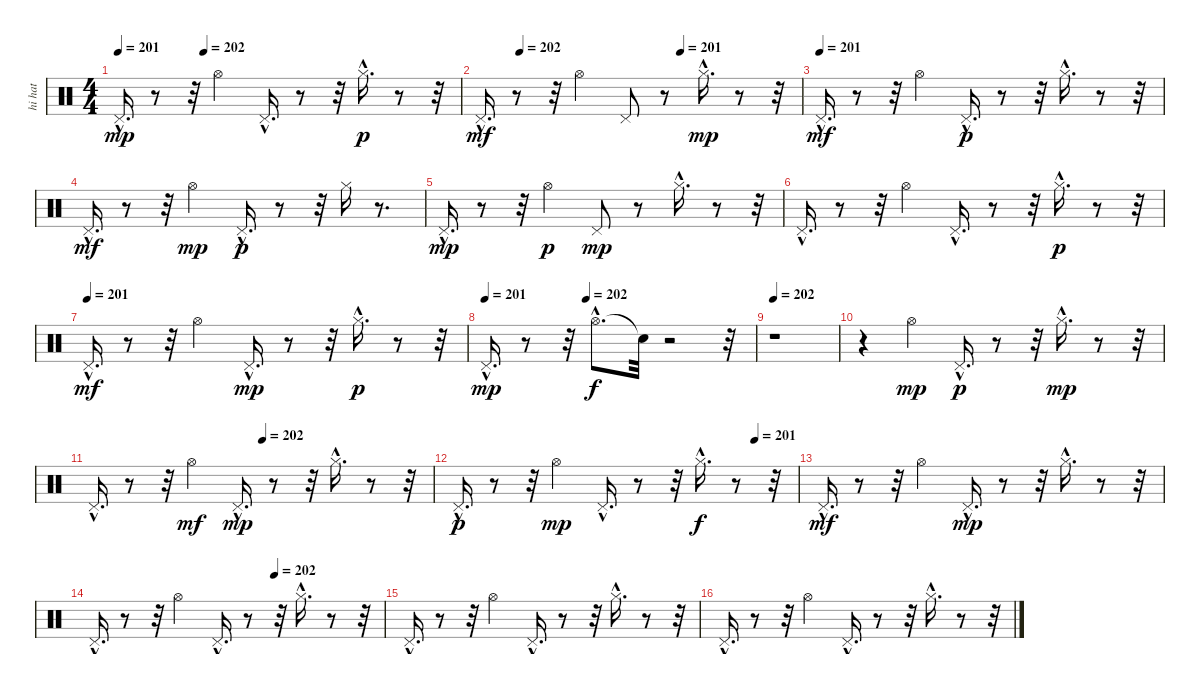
\track ("hi hat" "hi hat") {instrument percussion}
\staff {score}
\articulation defaults
\ts (4 4)
\tempo 201
\tempo (202 0.25)
\clef neutral
\ks c "Pedal Hi-Hat (hit)"{hac}.16{d dy mp}
r.8 r.32 "Hi-Hat (open)".4 "Pedal Hi-Hat (hit)"{hac}.16{d} r.8 r.32 "Hi-Hat (closed)"{hac}.16{d dy p} r.8 r.32 |
\tempo (202 0.125)
\tempo (201 0.625)
"Pedal Hi-Hat (hit)"{hac}.16{d dy mf} r.8 r.32 "Hi-Hat (open)".4 "Pedal Hi-Hat (hit)".8 r.8 "Hi-Hat (closed)"{hac}.16{d dy mp} r.8 r.32 |
\tempo (201)
"Pedal Hi-Hat (hit)"{hac}.16{d dy mf} r.8 r.32 "Hi-Hat (open)".4 "Pedal Hi-Hat (hit)"{hac}.16{d dy p} r.8 r.32 "Hi-Hat (closed)"{hac}.16{d} r.8 r.32 |
"Pedal Hi-Hat (hit)"{hac}.16{d dy mf} r.8 r.32 "Hi-Hat (open)".4{dy mp} "Pedal Hi-Hat (hit)"{hac}.16{d dy p} r.8 r.32 "Hi-Hat (closed)".16 r.8{d} |
"Pedal Hi-Hat (hit)"{hac}.16{d dy mp} r.8 r.32 "Hi-Hat (open)".4{dy p} "Pedal Hi-Hat (hit)".8{dy mp} r.8 "Hi-Hat (closed)"{hac}.16{d} r.8 r.32 |
"Pedal Hi-Hat (hit)"{hac}.16{d} r.8 r.32 "Hi-Hat (open)".4 "Pedal Hi-Hat (hit)"{hac}.16{d} r.8 r.32 "Hi-Hat (closed)"{hac}.16{d dy p} r.8 r.32 |
\tempo (201)
"Pedal Hi-Hat (hit)"{hac}.16{d dy mf} r.8 r.32 "Hi-Hat (open)".4 "Pedal Hi-Hat (hit)"{hac}.16{d dy mp} r.8 r.32 "Hi-Hat (closed)"{hac}.16{d dy p} r.8 r.32 |
\tempo 201
\tempo (202 0.375)
"Pedal Hi-Hat (hit)"{hac}.16{d dy mp} r.8 r.32 "Hi-Hat (open)"{hac}.8{d dy f} "Snare (hit)"{t}.32 r.2 r.32 |
\tempo 202
r.1 |
r.4 "Hi-Hat (open)".4{dy mp} "Pedal Hi-Hat (hit)"{hac}.16{d dy p} r.8 r.32 "Hi-Hat (closed)"{hac}.16{d dy mp} r.8 r.32 |
\tempo (202 0.5)
"Pedal Hi-Hat (hit)"{hac}.16{d} r.8 r.32 "Hi-Hat (open)".4{dy mf} "Pedal Hi-Hat (hit)"{hac}.16{d dy mp} r.8 r.32 "Hi-Hat (closed)"{hac}.16{d} r.8 r.32 |
\tempo (201 0.875)
"Pedal Hi-Hat (hit)"{hac}.16{d dy p} r.8 r.32 "Hi-Hat (open)".4{dy mp} "Pedal Hi-Hat (hit)"{hac}.16{d} r.8 r.32 "Hi-Hat (closed)"{hac}.16{d dy f} r.8 r.32 |
"Pedal Hi-Hat (hit)"{hac}.16{d dy mf} r.8 r.32 "Hi-Hat (open)".4 "Pedal Hi-Hat (hit)"{hac}.16{d dy mp} r.8 r.32 "Hi-Hat (closed)"{hac}.16{d} r.8 r.32 |
\tempo (202 0.625)
"Pedal Hi-Hat (hit)"{hac}.16{d} r.8 r.32 "Hi-Hat (open)".4 "Pedal Hi-Hat (hit)"{hac}.16{d} r.8 r.32 "Hi-Hat (closed)"{hac}.16{d} r.8 r.32 |
"Pedal Hi-Hat (hit)"{hac}.16{d} r.8 r.32 "Hi-Hat (open)".4 "Pedal Hi-Hat (hit)"{hac}.16{d} r.8 r.32 "Hi-Hat (closed)"{hac}.16{d} r.8 r.32 |
"Pedal Hi-Hat (hit)"{hac}.16{d} r.8 r.32 "Hi-Hat (open)".4 "Pedal Hi-Hat (hit)"{hac}.16{d} r.8 r.32 "Hi-Hat (closed)"{hac}.16{d} r.8 r.32
